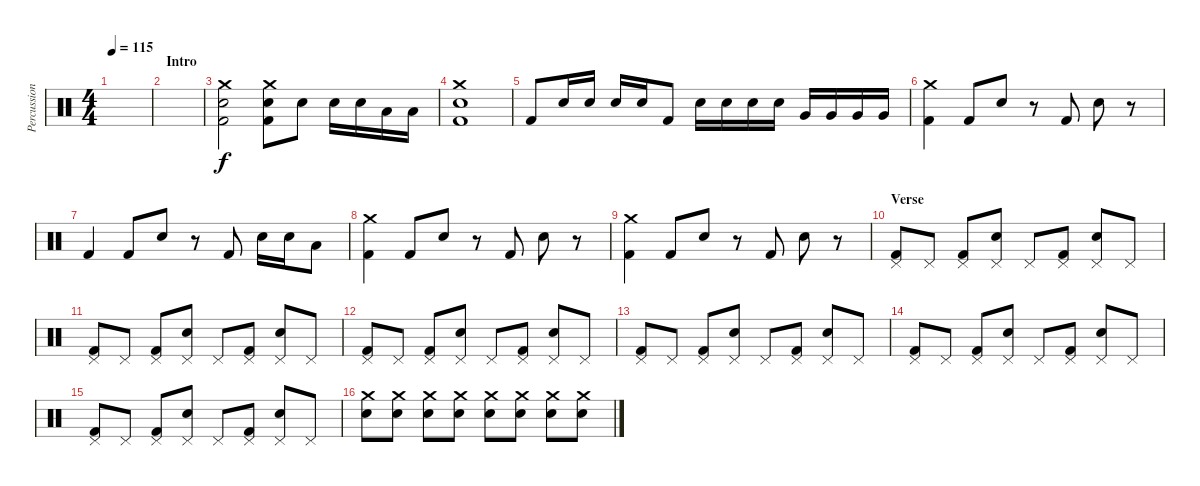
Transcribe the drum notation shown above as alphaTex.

\track ("Percussioni" "Percussion") {instrument percussion}
\staff {score}
\articulation defaults
\ts (4 4)
\tempo 115
\clef neutral
\ks c
|
\section ("" "Intro")
|
("Crash medium (hit)" "Snare (hit) 2" "Kick (hit) 2").2 ("Crash medium (hit)" "Snare (hit) 2" "Kick (hit) 2").8 "Snare (hit) 2".8 "Snare (hit) 2".16 "Snare (hit) 2".16 "Low Tom (hit)".16 "Low Floor Tom (hit)".16 |
("Crash medium (hit)" "Snare (hit) 2" "Kick (hit) 2").1 |
"Kick (hit) 2".8 "Snare (hit) 2".16 "Snare (hit) 2".16 "Snare (hit) 2".16 "Snare (hit) 2".16 "Kick (hit) 2".8 "Snare (hit) 2".16 "Snare (hit) 2".16 "Snare (hit) 2".16 "Snare (hit) 2".16 "Very Low Tom (hit)".16 "Very Low Tom (hit)".16 "Very Low Tom (hit)".16 "Very Low Tom (hit)".16 |
("Crash medium (hit)" "Kick (hit) 2").4 "Kick (hit) 2".8 "Snare (hit) 2".8 r.8 "Kick (hit) 2".8 "Snare (hit) 2".8 r.8 |
"Kick (hit) 2".4 "Kick (hit) 2".8 "Snare (hit) 2".8 r.8 "Kick (hit) 2".8 "Snare (hit) 2".16 "Snare (hit) 2".16 "Low Tom (hit)".8 |
("Crash medium (hit)" "Kick (hit) 2").4 "Kick (hit) 2".8 "Snare (hit) 2".8 r.8 "Kick (hit) 2".8 "Snare (hit) 2".8 r.8 |
("Crash medium (hit)" "Kick (hit) 2").4 "Kick (hit) 2".8 "Snare (hit) 2".8 r.8 "Kick (hit) 2".8 "Snare (hit) 2".8 r.8 |
\section ("" "Verse")
("Pedal Hi-Hat (hit)" "Kick (hit) 2").8 "Pedal Hi-Hat (hit)".8 ("Pedal Hi-Hat (hit)" "Kick (hit) 2").8 ("Pedal Hi-Hat (hit)" "Snare (hit) 2").8 "Pedal Hi-Hat (hit)".8 ("Pedal Hi-Hat (hit)" "Kick (hit) 2").8 ("Pedal Hi-Hat (hit)" "Snare (hit) 2").8 "Pedal Hi-Hat (hit)".8 |
("Pedal Hi-Hat (hit)" "Kick (hit) 2").8 "Pedal Hi-Hat (hit)".8 ("Pedal Hi-Hat (hit)" "Kick (hit) 2").8 ("Pedal Hi-Hat (hit)" "Snare (hit) 2").8 "Pedal Hi-Hat (hit)".8 ("Pedal Hi-Hat (hit)" "Kick (hit) 2").8 ("Pedal Hi-Hat (hit)" "Snare (hit) 2").8 "Pedal Hi-Hat (hit)".8 |
("Pedal Hi-Hat (hit)" "Kick (hit) 2").8 "Pedal Hi-Hat (hit)".8 ("Pedal Hi-Hat (hit)" "Kick (hit) 2").8 ("Pedal Hi-Hat (hit)" "Snare (hit) 2").8 "Pedal Hi-Hat (hit)".8 ("Pedal Hi-Hat (hit)" "Kick (hit) 2").8 ("Pedal Hi-Hat (hit)" "Snare (hit) 2").8 "Pedal Hi-Hat (hit)".8 |
("Pedal Hi-Hat (hit)" "Kick (hit) 2").8 "Pedal Hi-Hat (hit)".8 ("Pedal Hi-Hat (hit)" "Kick (hit) 2").8 ("Pedal Hi-Hat (hit)" "Snare (hit) 2").8 "Pedal Hi-Hat (hit)".8 ("Pedal Hi-Hat (hit)" "Kick (hit) 2").8 ("Pedal Hi-Hat (hit)" "Snare (hit) 2").8 "Pedal Hi-Hat (hit)".8 |
("Pedal Hi-Hat (hit)" "Kick (hit) 2").8 "Pedal Hi-Hat (hit)".8 ("Pedal Hi-Hat (hit)" "Kick (hit) 2").8 ("Pedal Hi-Hat (hit)" "Snare (hit) 2").8 "Pedal Hi-Hat (hit)".8 ("Pedal Hi-Hat (hit)" "Kick (hit) 2").8 ("Pedal Hi-Hat (hit)" "Snare (hit) 2").8 "Pedal Hi-Hat (hit)".8 |
("Pedal Hi-Hat (hit)" "Kick (hit) 2").8 "Pedal Hi-Hat (hit)".8 ("Pedal Hi-Hat (hit)" "Kick (hit) 2").8 ("Pedal Hi-Hat (hit)" "Snare (hit) 2").8 "Pedal Hi-Hat (hit)".8 ("Pedal Hi-Hat (hit)" "Kick (hit) 2").8 ("Pedal Hi-Hat (hit)" "Snare (hit) 2").8 "Pedal Hi-Hat (hit)".8 |
("Crash medium (hit)" "Electric Snare (hit)").8 ("Crash medium (hit)" "Electric Snare (hit)").8 ("Crash medium (hit)" "Electric Snare (hit)").8 ("Crash medium (hit)" "Electric Snare (hit)").8 ("Crash medium (hit)" "Electric Snare (hit)").8 ("Crash medium (hit)" "Electric Snare (hit)").8 ("Crash medium (hit)" "Electric Snare (hit)").8 ("Crash medium (hit)" "Electric Snare (hit)").8
